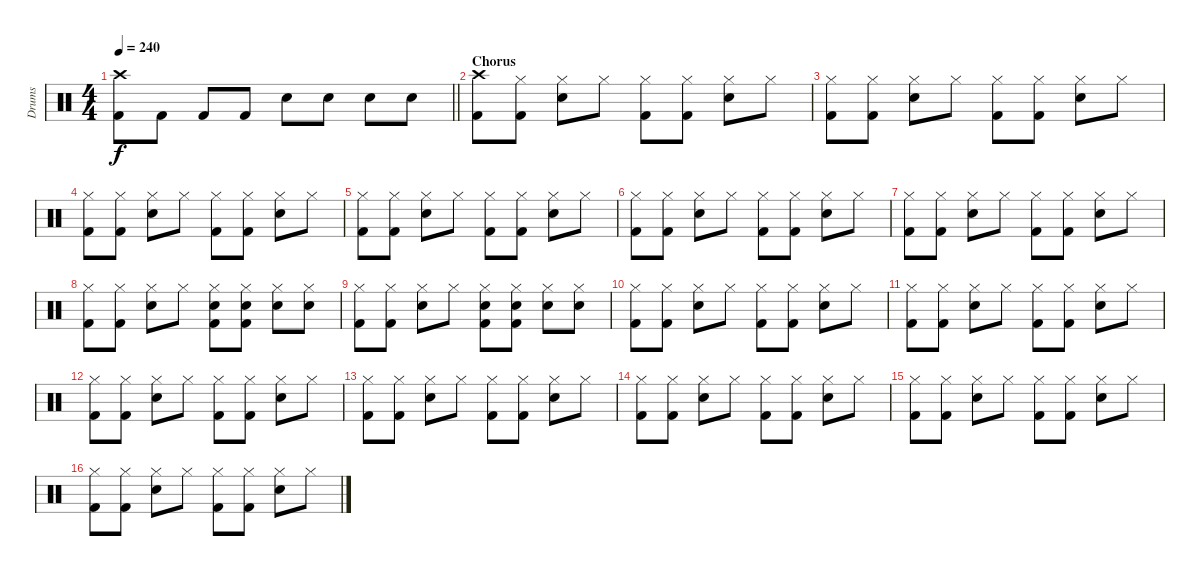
\track ("Drums" "Drums") {instrument percussion}
\staff {score}
\articulation defaults
\ts (4 4)
\tempo 240
\clef neutral
\barLineRight lightlight
\ks c
("Crash high (hit)" "Kick (hit) 2").8{dy f} "Kick (hit) 2".8 "Kick (hit) 2".8 "Kick (hit) 2".8 "Snare (hit) 2".8 "Snare (hit) 2".8 "Snare (hit) 2".8 "Snare (hit) 2".8 |
\section ("" "Chorus")
("Crash high (hit)" "Kick (hit) 2").8 ("Hi-Hat (closed)" "Kick (hit) 2").8 ("Hi-Hat (closed)" "Snare (hit) 2").8 "Hi-Hat (closed)".8 ("Hi-Hat (closed)" "Kick (hit) 2").8 ("Hi-Hat (closed)" "Kick (hit) 2").8 ("Hi-Hat (closed)" "Snare (hit) 2").8 "Hi-Hat (closed)".8 |
("Hi-Hat (closed)" "Kick (hit) 2").8 ("Hi-Hat (closed)" "Kick (hit) 2").8 ("Hi-Hat (closed)" "Snare (hit) 2").8 "Hi-Hat (closed)".8 ("Hi-Hat (closed)" "Kick (hit) 2").8 ("Hi-Hat (closed)" "Kick (hit) 2").8 ("Hi-Hat (closed)" "Snare (hit) 2").8 "Hi-Hat (closed)".8 |
("Hi-Hat (closed)" "Kick (hit) 2").8 ("Hi-Hat (closed)" "Kick (hit) 2").8 ("Hi-Hat (closed)" "Snare (hit) 2").8 "Hi-Hat (closed)".8 ("Hi-Hat (closed)" "Kick (hit) 2").8 ("Hi-Hat (closed)" "Kick (hit) 2").8 ("Hi-Hat (closed)" "Snare (hit) 2").8 "Hi-Hat (closed)".8 |
("Hi-Hat (closed)" "Kick (hit) 2").8 ("Hi-Hat (closed)" "Kick (hit) 2").8 ("Hi-Hat (closed)" "Snare (hit) 2").8 "Hi-Hat (closed)".8 ("Hi-Hat (closed)" "Kick (hit) 2").8 ("Hi-Hat (closed)" "Kick (hit) 2").8 ("Hi-Hat (closed)" "Snare (hit) 2").8 "Hi-Hat (closed)".8 |
("Hi-Hat (closed)" "Kick (hit) 2").8 ("Hi-Hat (closed)" "Kick (hit) 2").8 ("Hi-Hat (closed)" "Snare (hit) 2").8 "Hi-Hat (closed)".8 ("Hi-Hat (closed)" "Kick (hit) 2").8 ("Hi-Hat (closed)" "Kick (hit) 2").8 ("Hi-Hat (closed)" "Snare (hit) 2").8 "Hi-Hat (closed)".8 |
("Hi-Hat (closed)" "Kick (hit) 2").8 ("Hi-Hat (closed)" "Kick (hit) 2").8 ("Hi-Hat (closed)" "Snare (hit) 2").8 "Hi-Hat (closed)".8 ("Hi-Hat (closed)" "Kick (hit) 2").8 ("Hi-Hat (closed)" "Kick (hit) 2").8 ("Hi-Hat (closed)" "Snare (hit) 2").8 "Hi-Hat (closed)".8 |
("Hi-Hat (closed)" "Kick (hit) 2").8 ("Hi-Hat (closed)" "Kick (hit) 2").8 ("Hi-Hat (closed)" "Snare (hit) 2").8 "Hi-Hat (closed)".8 ("Hi-Hat (closed)" "Snare (hit) 2" "Kick (hit) 2").8 ("Hi-Hat (closed)" "Snare (hit) 2" "Kick (hit) 2").8 ("Hi-Hat (closed)" "Snare (hit) 2").8 ("Hi-Hat (closed)" "Snare (hit) 2").8 |
("Hi-Hat (closed)" "Kick (hit) 2").8 ("Hi-Hat (closed)" "Kick (hit) 2").8 ("Hi-Hat (closed)" "Snare (hit) 2").8 "Hi-Hat (closed)".8 ("Hi-Hat (closed)" "Snare (hit) 2" "Kick (hit) 2").8 ("Hi-Hat (closed)" "Snare (hit) 2" "Kick (hit) 2").8 ("Hi-Hat (closed)" "Snare (hit) 2").8 ("Hi-Hat (closed)" "Snare (hit) 2").8 |
("Hi-Hat (closed)" "Kick (hit) 2").8 ("Hi-Hat (closed)" "Kick (hit) 2").8 ("Hi-Hat (closed)" "Snare (hit) 2").8 "Hi-Hat (closed)".8 ("Hi-Hat (closed)" "Kick (hit) 2").8 ("Hi-Hat (closed)" "Kick (hit) 2").8 ("Hi-Hat (closed)" "Snare (hit) 2").8 "Hi-Hat (closed)".8 |
("Hi-Hat (closed)" "Kick (hit) 2").8 ("Hi-Hat (closed)" "Kick (hit) 2").8 ("Hi-Hat (closed)" "Snare (hit) 2").8 "Hi-Hat (closed)".8 ("Hi-Hat (closed)" "Kick (hit) 2").8 ("Hi-Hat (closed)" "Kick (hit) 2").8 ("Hi-Hat (closed)" "Snare (hit) 2").8 "Hi-Hat (closed)".8 |
("Hi-Hat (closed)" "Kick (hit) 2").8 ("Hi-Hat (closed)" "Kick (hit) 2").8 ("Hi-Hat (closed)" "Snare (hit) 2").8 "Hi-Hat (closed)".8 ("Hi-Hat (closed)" "Kick (hit) 2").8 ("Hi-Hat (closed)" "Kick (hit) 2").8 ("Hi-Hat (closed)" "Snare (hit) 2").8 "Hi-Hat (closed)".8 |
("Hi-Hat (closed)" "Kick (hit) 2").8 ("Hi-Hat (closed)" "Kick (hit) 2").8 ("Hi-Hat (closed)" "Snare (hit) 2").8 "Hi-Hat (closed)".8 ("Hi-Hat (closed)" "Kick (hit) 2").8 ("Hi-Hat (closed)" "Kick (hit) 2").8 ("Hi-Hat (closed)" "Snare (hit) 2").8 "Hi-Hat (closed)".8 |
("Hi-Hat (closed)" "Kick (hit) 2").8 ("Hi-Hat (closed)" "Kick (hit) 2").8 ("Hi-Hat (closed)" "Snare (hit) 2").8 "Hi-Hat (closed)".8 ("Hi-Hat (closed)" "Kick (hit) 2").8 ("Hi-Hat (closed)" "Kick (hit) 2").8 ("Hi-Hat (closed)" "Snare (hit) 2").8 "Hi-Hat (closed)".8 |
("Hi-Hat (closed)" "Kick (hit) 2").8 ("Hi-Hat (closed)" "Kick (hit) 2").8 ("Hi-Hat (closed)" "Snare (hit) 2").8 "Hi-Hat (closed)".8 ("Hi-Hat (closed)" "Kick (hit) 2").8 ("Hi-Hat (closed)" "Kick (hit) 2").8 ("Hi-Hat (closed)" "Snare (hit) 2").8 "Hi-Hat (closed)".8 |
("Hi-Hat (closed)" "Kick (hit) 2").8 ("Hi-Hat (closed)" "Kick (hit) 2").8 ("Hi-Hat (closed)" "Snare (hit) 2").8 "Hi-Hat (closed)".8 ("Hi-Hat (closed)" "Kick (hit) 2").8 ("Hi-Hat (closed)" "Kick (hit) 2").8 ("Hi-Hat (closed)" "Snare (hit) 2").8 "Hi-Hat (closed)".8
